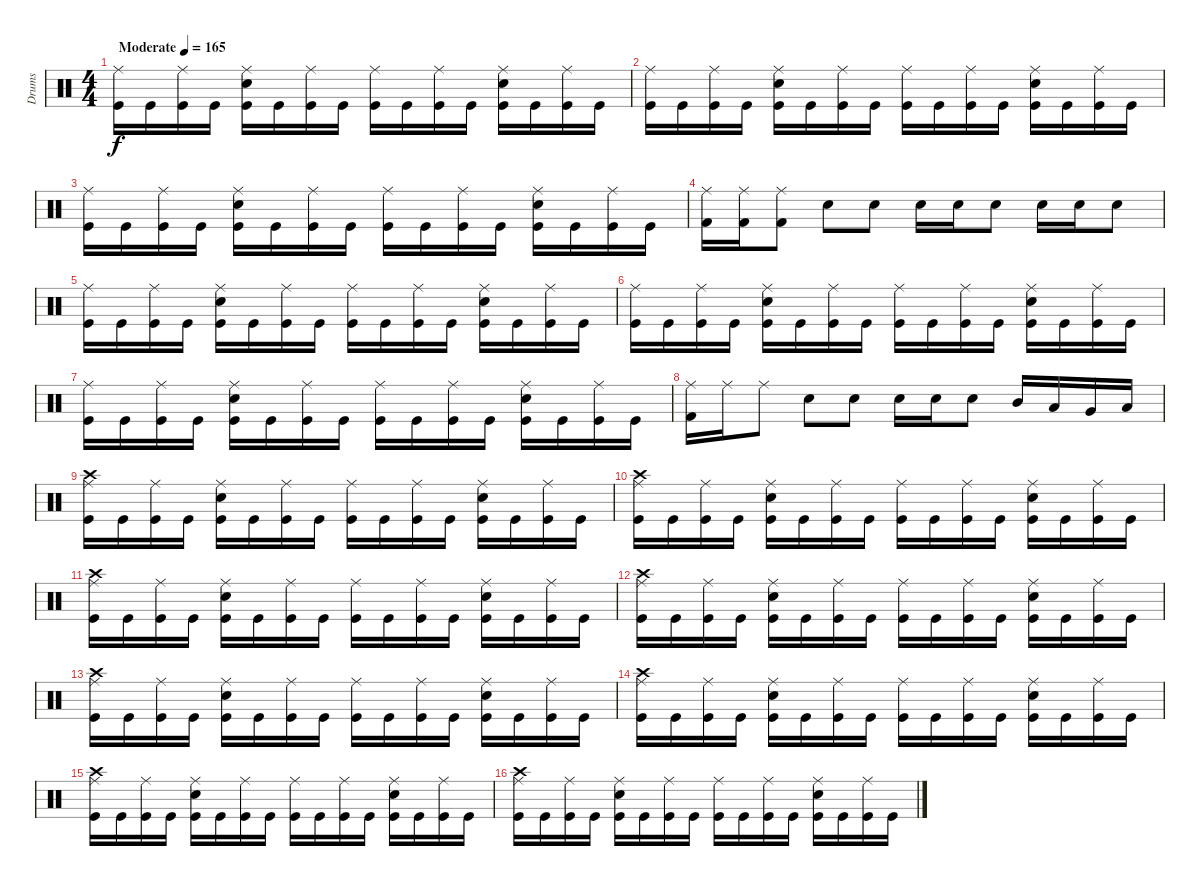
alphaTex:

\track ("Drums" "Drums") {instrument percussion}
\staff {score}
\articulation defaults
\ts (4 4)
\tempo (165 "Moderate")
\clef neutral
\ks c
("Kick (hit)" "Ride (middle)").16{dy f} "Kick (hit)".16 ("Kick (hit)" "Ride (middle)").16 "Kick (hit)".16 ("Kick (hit)" "Snare (hit) 2" "Ride (middle)").16 "Kick (hit)".16 ("Kick (hit)" "Ride (middle)").16 "Kick (hit)".16 ("Kick (hit)" "Ride (middle)").16 "Kick (hit)".16 ("Kick (hit)" "Ride (middle)").16 "Kick (hit)".16 ("Kick (hit)" "Snare (hit) 2" "Ride (middle)").16 "Kick (hit)".16 ("Kick (hit)" "Ride (middle)").16 "Kick (hit)".16 |
("Kick (hit)" "Ride (middle)").16 "Kick (hit)".16 ("Kick (hit)" "Ride (middle)").16 "Kick (hit)".16 ("Kick (hit)" "Snare (hit) 2" "Ride (middle)").16 "Kick (hit)".16 ("Kick (hit)" "Ride (middle)").16 "Kick (hit)".16 ("Kick (hit)" "Ride (middle)").16 "Kick (hit)".16 ("Kick (hit)" "Ride (middle)").16 "Kick (hit)".16 ("Kick (hit)" "Snare (hit) 2" "Ride (middle)").16 "Kick (hit)".16 ("Kick (hit)" "Ride (middle)").16 "Kick (hit)".16 |
("Kick (hit)" "Ride (middle)").16 "Kick (hit)".16 ("Kick (hit)" "Ride (middle)").16 "Kick (hit)".16 ("Kick (hit)" "Snare (hit) 2" "Ride (middle)").16 "Kick (hit)".16 ("Kick (hit)" "Ride (middle)").16 "Kick (hit)".16 ("Kick (hit)" "Ride (middle)").16 "Kick (hit)".16 ("Kick (hit)" "Ride (middle)").16 "Kick (hit)".16 ("Kick (hit)" "Snare (hit) 2" "Ride (middle)").16 "Kick (hit)".16 ("Kick (hit)" "Ride (middle)").16 "Kick (hit)".16 |
("Kick (hit) 2" "Ride (middle)").16 ("Kick (hit) 2" "Ride (middle)").16 ("Kick (hit) 2" "Ride (middle)").8 "Snare (hit) 2".8 "Snare (hit) 2".8 "Snare (hit) 2".16 "Snare (hit) 2".16 "Snare (hit) 2".8 "Snare (hit) 2".16 "Snare (hit) 2".16 "Snare (hit) 2".8 |
("Kick (hit)" "Ride (middle)").16 "Kick (hit)".16 ("Kick (hit)" "Ride (middle)").16 "Kick (hit)".16 ("Kick (hit)" "Snare (hit) 2" "Ride (middle)").16 "Kick (hit)".16 ("Kick (hit)" "Ride (middle)").16 "Kick (hit)".16 ("Kick (hit)" "Ride (middle)").16 "Kick (hit)".16 ("Kick (hit)" "Ride (middle)").16 "Kick (hit)".16 ("Kick (hit)" "Snare (hit) 2" "Ride (middle)").16 "Kick (hit)".16 ("Kick (hit)" "Ride (middle)").16 "Kick (hit)".16 |
("Kick (hit)" "Ride (middle)").16 "Kick (hit)".16 ("Kick (hit)" "Ride (middle)").16 "Kick (hit)".16 ("Kick (hit)" "Snare (hit) 2" "Ride (middle)").16 "Kick (hit)".16 ("Kick (hit)" "Ride (middle)").16 "Kick (hit)".16 ("Kick (hit)" "Ride (middle)").16 "Kick (hit)".16 ("Kick (hit)" "Ride (middle)").16 "Kick (hit)".16 ("Kick (hit)" "Snare (hit) 2" "Ride (middle)").16 "Kick (hit)".16 ("Kick (hit)" "Ride (middle)").16 "Kick (hit)".16 |
("Kick (hit)" "Ride (middle)").16 "Kick (hit)".16 ("Kick (hit)" "Ride (middle)").16 "Kick (hit)".16 ("Kick (hit)" "Snare (hit) 2" "Ride (middle)").16 "Kick (hit)".16 ("Kick (hit)" "Ride (middle)").16 "Kick (hit)".16 ("Kick (hit)" "Ride (middle)").16 "Kick (hit)".16 ("Kick (hit)" "Ride (middle)").16 "Kick (hit)".16 ("Kick (hit)" "Snare (hit) 2" "Ride (middle)").16 "Kick (hit)".16 ("Kick (hit)" "Ride (middle)").16 "Kick (hit)".16 |
("Kick (hit) 2" "Ride (middle)").16 "Ride (middle)".16 "Ride (middle)".8 "Snare (hit) 2".8 "Snare (hit) 2".8 "Snare (hit) 2".16 "Snare (hit) 2".16 "Snare (hit) 2".8 "Mid Tom (hit)".16 "Low Tom (hit)".16 "Very Low Tom (hit)".16 "Low Floor Tom (hit)".16 |
("Kick (hit)" "Ride (middle)" "Crash high (hit)").16 "Kick (hit)".16 ("Kick (hit)" "Ride (middle)").16 "Kick (hit)".16 ("Kick (hit)" "Snare (hit) 2" "Ride (middle)").16 "Kick (hit)".16 ("Kick (hit)" "Ride (middle)").16 "Kick (hit)".16 ("Kick (hit)" "Ride (middle)").16 "Kick (hit)".16 ("Kick (hit)" "Ride (middle)").16 "Kick (hit)".16 ("Kick (hit)" "Snare (hit) 2" "Ride (middle)").16 "Kick (hit)".16 ("Kick (hit)" "Ride (middle)").16 "Kick (hit)".16 |
("Kick (hit)" "Ride (middle)" "Crash high (hit)").16 "Kick (hit)".16 ("Kick (hit)" "Ride (middle)").16 "Kick (hit)".16 ("Kick (hit)" "Snare (hit) 2" "Ride (middle)").16 "Kick (hit)".16 ("Kick (hit)" "Ride (middle)").16 "Kick (hit)".16 ("Kick (hit)" "Ride (middle)").16 "Kick (hit)".16 ("Kick (hit)" "Ride (middle)").16 "Kick (hit)".16 ("Kick (hit)" "Snare (hit) 2" "Ride (middle)").16 "Kick (hit)".16 ("Kick (hit)" "Ride (middle)").16 "Kick (hit)".16 |
("Kick (hit)" "Ride (middle)" "Crash high (hit)").16 "Kick (hit)".16 ("Kick (hit)" "Ride (middle)").16 "Kick (hit)".16 ("Kick (hit)" "Snare (hit) 2" "Ride (middle)").16 "Kick (hit)".16 ("Kick (hit)" "Ride (middle)").16 "Kick (hit)".16 ("Kick (hit)" "Ride (middle)").16 "Kick (hit)".16 ("Kick (hit)" "Ride (middle)").16 "Kick (hit)".16 ("Kick (hit)" "Snare (hit) 2" "Ride (middle)").16 "Kick (hit)".16 ("Kick (hit)" "Ride (middle)").16 "Kick (hit)".16 |
("Kick (hit)" "Ride (middle)" "Crash high (hit)").16 "Kick (hit)".16 ("Kick (hit)" "Ride (middle)").16 "Kick (hit)".16 ("Kick (hit)" "Snare (hit) 2" "Ride (middle)").16 "Kick (hit)".16 ("Kick (hit)" "Ride (middle)").16 "Kick (hit)".16 ("Kick (hit)" "Ride (middle)").16 "Kick (hit)".16 ("Kick (hit)" "Ride (middle)").16 "Kick (hit)".16 ("Kick (hit)" "Snare (hit) 2" "Ride (middle)").16 "Kick (hit)".16 ("Kick (hit)" "Ride (middle)").16 "Kick (hit)".16 |
("Kick (hit)" "Ride (middle)" "Crash high (hit)").16 "Kick (hit)".16 ("Kick (hit)" "Ride (middle)").16 "Kick (hit)".16 ("Kick (hit)" "Snare (hit) 2" "Ride (middle)").16 "Kick (hit)".16 ("Kick (hit)" "Ride (middle)").16 "Kick (hit)".16 ("Kick (hit)" "Ride (middle)").16 "Kick (hit)".16 ("Kick (hit)" "Ride (middle)").16 "Kick (hit)".16 ("Kick (hit)" "Snare (hit) 2" "Ride (middle)").16 "Kick (hit)".16 ("Kick (hit)" "Ride (middle)").16 "Kick (hit)".16 |
("Kick (hit)" "Ride (middle)" "Crash high (hit)").16 "Kick (hit)".16 ("Kick (hit)" "Ride (middle)").16 "Kick (hit)".16 ("Kick (hit)" "Snare (hit) 2" "Ride (middle)").16 "Kick (hit)".16 ("Kick (hit)" "Ride (middle)").16 "Kick (hit)".16 ("Kick (hit)" "Ride (middle)").16 "Kick (hit)".16 ("Kick (hit)" "Ride (middle)").16 "Kick (hit)".16 ("Kick (hit)" "Snare (hit) 2" "Ride (middle)").16 "Kick (hit)".16 ("Kick (hit)" "Ride (middle)").16 "Kick (hit)".16 |
("Kick (hit)" "Ride (middle)" "Crash high (hit)").16 "Kick (hit)".16 ("Kick (hit)" "Ride (middle)").16 "Kick (hit)".16 ("Kick (hit)" "Snare (hit) 2" "Ride (middle)").16 "Kick (hit)".16 ("Kick (hit)" "Ride (middle)").16 "Kick (hit)".16 ("Kick (hit)" "Ride (middle)").16 "Kick (hit)".16 ("Kick (hit)" "Ride (middle)").16 "Kick (hit)".16 ("Kick (hit)" "Snare (hit) 2" "Ride (middle)").16 "Kick (hit)".16 ("Kick (hit)" "Ride (middle)").16 "Kick (hit)".16 |
("Kick (hit)" "Ride (middle)" "Crash high (hit)").16 "Kick (hit)".16 ("Kick (hit)" "Ride (middle)").16 "Kick (hit)".16 ("Kick (hit)" "Snare (hit) 2" "Ride (middle)").16 "Kick (hit)".16 ("Kick (hit)" "Ride (middle)").16 "Kick (hit)".16 ("Kick (hit)" "Ride (middle)").16 "Kick (hit)".16 ("Kick (hit)" "Ride (middle)").16 "Kick (hit)".16 ("Kick (hit)" "Snare (hit) 2" "Ride (middle)").16 "Kick (hit)".16 ("Kick (hit)" "Ride (middle)").16 "Kick (hit)".16
